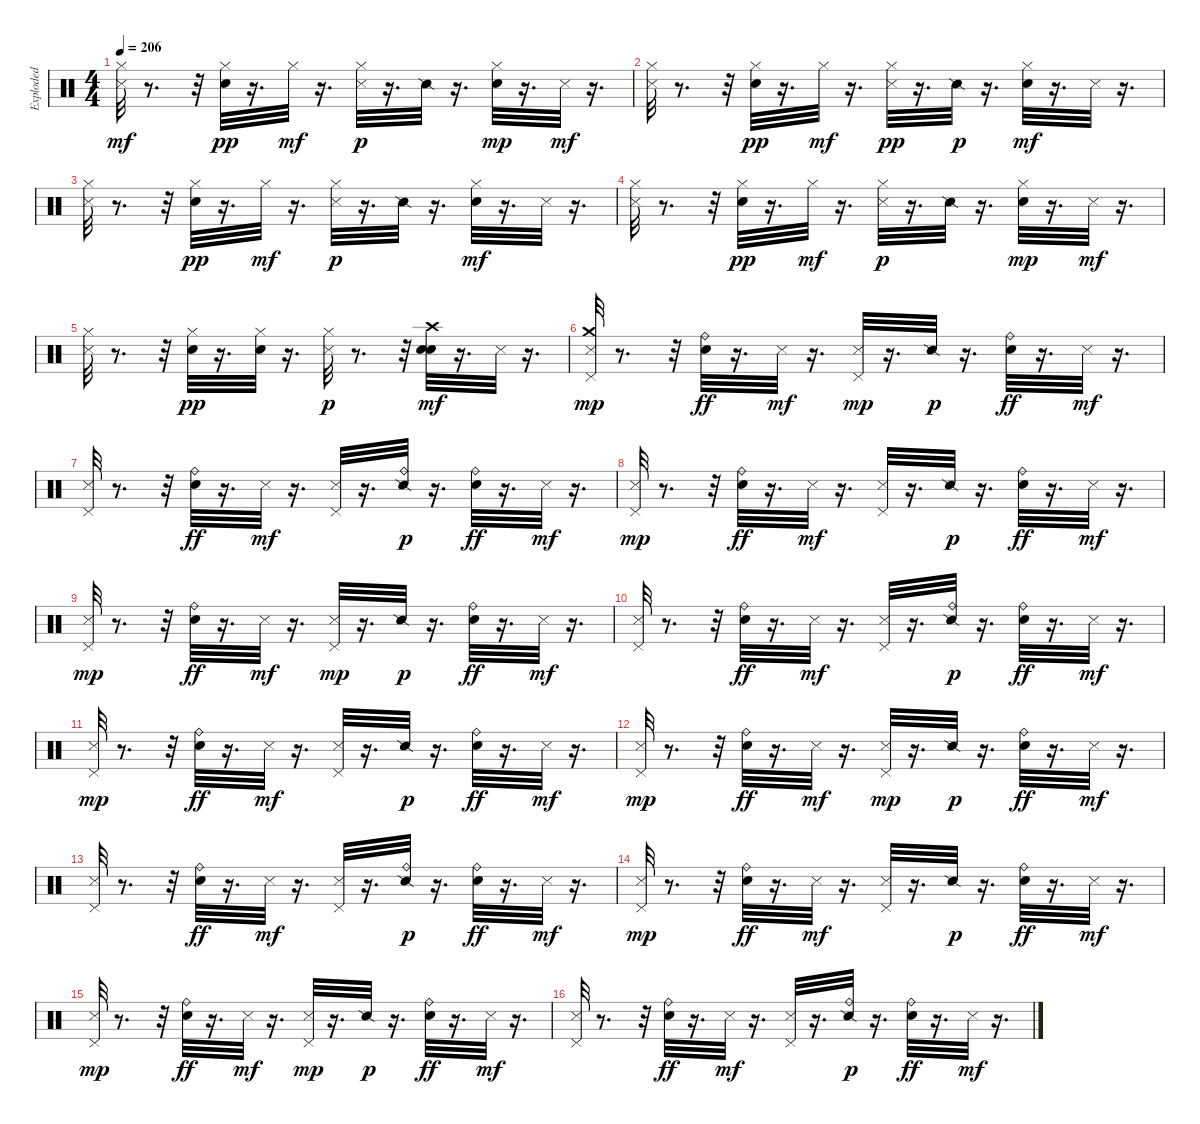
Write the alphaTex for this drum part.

\track ("Exploded" "Exploded") {instrument percussion}
\staff {score}
\articulation defaults
\ts (4 4)
\tempo 206
\clef neutral
\ks c
("Metronome (hit)" "Hi-Hat (closed)").32{dy mf} r.8{d} r.32 ("Electric Snare (hit)" "Hi-Hat (closed)").32{dy pp} r.16{d} "Hi-Hat (closed)".32{dy mf} r.16{d} ("Metronome (hit)" "Hi-Hat (closed)").32{dy p} r.16{d} "Snare (side stick) 2".32 r.16{d} ("Electric Snare (hit)" "Hi-Hat (closed)").32{dy mp} r.16{d} "Metronome (hit)".32{dy mf} r.16{d} |
("Metronome (hit)" "Hi-Hat (closed)").32 r.8{d} r.32 ("Electric Snare (hit)" "Hi-Hat (closed)").32{dy pp} r.16{d} "Hi-Hat (closed)".32{dy mf} r.16{d} ("Metronome (hit)" "Hi-Hat (closed)").32{dy pp} r.16{d} "Snare (side stick) 2".32{dy p} r.16{d} ("Electric Snare (hit)" "Hi-Hat (closed)").32{dy mf} r.16{d} "Metronome (hit)".32 r.16{d} |
("Metronome (hit)" "Hi-Hat (closed)").32 r.8{d} r.32 ("Electric Snare (hit)" "Hi-Hat (closed)").32{dy pp} r.16{d} "Hi-Hat (closed)".32{dy mf} r.16{d} ("Metronome (hit)" "Hi-Hat (closed)").32{dy p} r.16{d} "Snare (side stick) 2".32 r.16{d} ("Electric Snare (hit)" "Hi-Hat (closed)").32{dy mf} r.16{d} "Metronome (hit)".32 r.16{d} |
("Metronome (hit)" "Hi-Hat (closed)").32 r.8{d} r.32 ("Electric Snare (hit)" "Hi-Hat (closed)").32{dy pp} r.16{d} "Hi-Hat (closed)".32{dy mf} r.16{d} ("Metronome (hit)" "Hi-Hat (closed)").32{dy p} r.16{d} "Snare (side stick) 2".32 r.16{d} ("Electric Snare (hit)" "Hi-Hat (closed)").32{dy mp} r.16{d} "Metronome (hit)".32{dy mf} r.16{d} |
("Metronome (hit)" "Hi-Hat (closed)").32 r.8{d} r.32 ("Electric Snare (hit)" "Hi-Hat (closed)").32{dy pp} r.16{d} ("Electric Snare (hit)" "Hi-Hat (closed)").32 r.16{d} ("Metronome (hit)" "Hi-Hat (closed)").32{dy p} r.8{d} r.32 ("Metronome (bell)" "Electric Snare (hit)" "Crash high (hit)").32{dy mf} r.16{d} "Metronome (hit)".32 r.16{d} |
("Crash medium (hit)" "Metronome (hit)" "Pedal Hi-Hat (hit)").32{dy mp} r.8{d} r.32 ("Electric Snare (hit)" "Ride (bell)").32{dy ff} r.16{d} "Metronome (hit)".32{dy mf} r.16{d} ("Metronome (hit)" "Pedal Hi-Hat (hit)").32{dy mp} r.16{d} "Snare (side stick) 2".32{dy p} r.16{d} ("Electric Snare (hit)" "Ride (bell)").32{dy ff} r.16{d} "Metronome (hit)".32{dy mf} r.16{d} |
("Metronome (hit)" "Pedal Hi-Hat (hit)").32 r.8{d} r.32 ("Electric Snare (hit)" "Ride (bell)").32{dy ff} r.16{d} "Metronome (hit)".32{dy mf} r.16{d} ("Metronome (hit)" "Pedal Hi-Hat (hit)").32 r.16{d} ("Snare (side stick) 2" "Ride (bell)").32{dy p} r.16{d} ("Electric Snare (hit)" "Ride (bell)").32{dy ff} r.16{d} "Metronome (hit)".32{dy mf} r.16{d} |
("Metronome (hit)" "Pedal Hi-Hat (hit)").32{dy mp} r.8{d} r.32 ("Electric Snare (hit)" "Ride (bell)").32{dy ff} r.16{d} "Metronome (hit)".32{dy mf} r.16{d} ("Metronome (hit)" "Pedal Hi-Hat (hit)").32 r.16{d} "Snare (side stick) 2".32{dy p} r.16{d} ("Electric Snare (hit)" "Ride (bell)").32{dy ff} r.16{d} "Metronome (hit)".32{dy mf} r.16{d} |
("Metronome (hit)" "Pedal Hi-Hat (hit)").32{dy mp} r.8{d} r.32 ("Electric Snare (hit)" "Ride (bell)").32{dy ff} r.16{d} "Metronome (hit)".32{dy mf} r.16{d} ("Metronome (hit)" "Pedal Hi-Hat (hit)").32{dy mp} r.16{d} "Snare (side stick) 2".32{dy p} r.16{d} ("Electric Snare (hit)" "Ride (bell)").32{dy ff} r.16{d} "Metronome (hit)".32{dy mf} r.16{d} |
("Metronome (hit)" "Pedal Hi-Hat (hit)").32 r.8{d} r.32 ("Electric Snare (hit)" "Ride (bell)").32{dy ff} r.16{d} "Metronome (hit)".32{dy mf} r.16{d} ("Metronome (hit)" "Pedal Hi-Hat (hit)").32 r.16{d} ("Snare (side stick) 2" "Ride (bell)").32{dy p} r.16{d} ("Electric Snare (hit)" "Ride (bell)").32{dy ff} r.16{d} "Metronome (hit)".32{dy mf} r.16{d} |
("Metronome (hit)" "Pedal Hi-Hat (hit)").32{dy mp} r.8{d} r.32 ("Electric Snare (hit)" "Ride (bell)").32{dy ff} r.16{d} "Metronome (hit)".32{dy mf} r.16{d} ("Metronome (hit)" "Pedal Hi-Hat (hit)").32 r.16{d} "Snare (side stick) 2".32{dy p} r.16{d} ("Electric Snare (hit)" "Ride (bell)").32{dy ff} r.16{d} "Metronome (hit)".32{dy mf} r.16{d} |
("Metronome (hit)" "Pedal Hi-Hat (hit)").32{dy mp} r.8{d} r.32 ("Electric Snare (hit)" "Ride (bell)").32{dy ff} r.16{d} "Metronome (hit)".32{dy mf} r.16{d} ("Metronome (hit)" "Pedal Hi-Hat (hit)").32{dy mp} r.16{d} "Snare (side stick) 2".32{dy p} r.16{d} ("Electric Snare (hit)" "Ride (bell)").32{dy ff} r.16{d} "Metronome (hit)".32{dy mf} r.16{d} |
("Metronome (hit)" "Pedal Hi-Hat (hit)").32 r.8{d} r.32 ("Electric Snare (hit)" "Ride (bell)").32{dy ff} r.16{d} "Metronome (hit)".32{dy mf} r.16{d} ("Metronome (hit)" "Pedal Hi-Hat (hit)").32 r.16{d} ("Snare (side stick) 2" "Ride (bell)").32{dy p} r.16{d} ("Electric Snare (hit)" "Ride (bell)").32{dy ff} r.16{d} "Metronome (hit)".32{dy mf} r.16{d} |
("Metronome (hit)" "Pedal Hi-Hat (hit)").32{dy mp} r.8{d} r.32 ("Electric Snare (hit)" "Ride (bell)").32{dy ff} r.16{d} "Metronome (hit)".32{dy mf} r.16{d} ("Metronome (hit)" "Pedal Hi-Hat (hit)").32 r.16{d} "Snare (side stick) 2".32{dy p} r.16{d} ("Electric Snare (hit)" "Ride (bell)").32{dy ff} r.16{d} "Metronome (hit)".32{dy mf} r.16{d} |
("Metronome (hit)" "Pedal Hi-Hat (hit)").32{dy mp} r.8{d} r.32 ("Electric Snare (hit)" "Ride (bell)").32{dy ff} r.16{d} "Metronome (hit)".32{dy mf} r.16{d} ("Metronome (hit)" "Pedal Hi-Hat (hit)").32{dy mp} r.16{d} "Snare (side stick) 2".32{dy p} r.16{d} ("Electric Snare (hit)" "Ride (bell)").32{dy ff} r.16{d} "Metronome (hit)".32{dy mf} r.16{d} |
("Metronome (hit)" "Pedal Hi-Hat (hit)").32 r.8{d} r.32 ("Electric Snare (hit)" "Ride (bell)").32{dy ff} r.16{d} "Metronome (hit)".32{dy mf} r.16{d} ("Metronome (hit)" "Pedal Hi-Hat (hit)").32 r.16{d} ("Snare (side stick) 2" "Ride (bell)").32{dy p} r.16{d} ("Electric Snare (hit)" "Ride (bell)").32{dy ff} r.16{d} "Metronome (hit)".32{dy mf} r.16{d}
